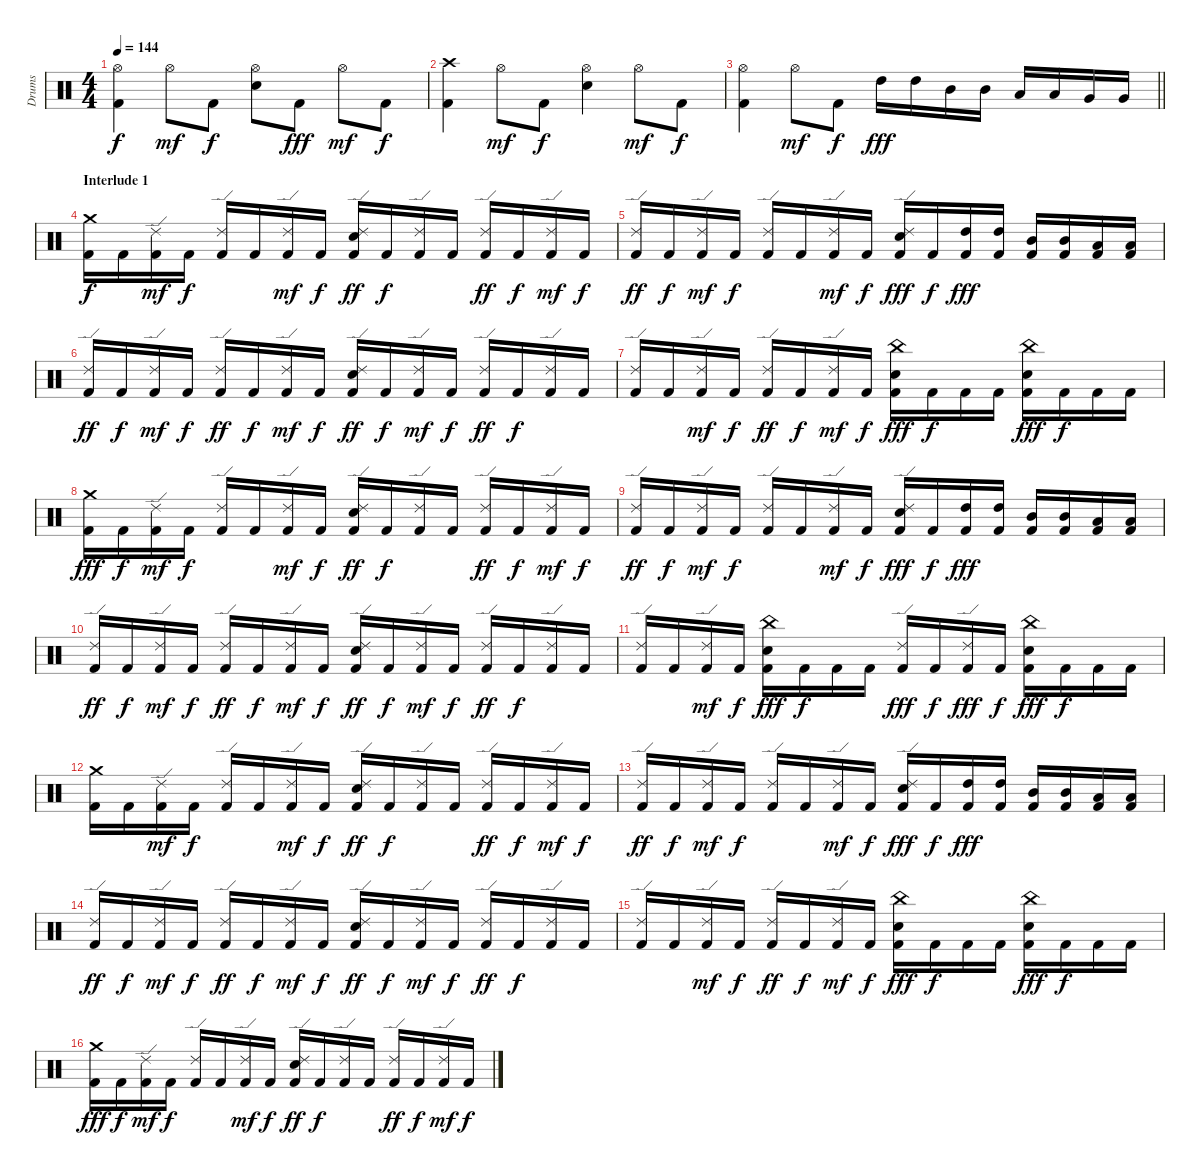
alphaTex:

\track ("Drums" "Drums") {instrument percussion}
\staff {score}
\articulation defaults
\ts (4 4)
\tempo 144
\clef neutral
\ks c
("Hi-Hat (open)" "Kick (hit) 2").4{dy f} "Hi-Hat (open)".8{dy mf} "Kick (hit) 2".8{dy f} ("Hi-Hat (open)" "Electric Snare (hit)").8 "Kick (hit) 2".8{dy fff} "Hi-Hat (open)".8{dy mf} "Kick (hit) 2".8{dy f} |
("Crash high (hit)" "Kick (hit) 2").4 "Hi-Hat (open)".8{dy mf} "Kick (hit) 2".8{dy f} ("Hi-Hat (open)" "Electric Snare (hit)").4 "Hi-Hat (open)".8{dy mf} "Kick (hit) 2".8{dy f} |
\barLineRight lightlight
("Hi-Hat (open)" "Kick (hit) 2").4 "Hi-Hat (open)".8{dy mf} "Kick (hit) 2".8{dy f} "High Tom (hit)".16{dy fff} "High Tom (hit)".16 "Mid Tom (hit)".16 "Mid Tom (hit)".16 "Low Tom (hit)".16 "Low Tom (hit)".16 "Very Low Tom (hit)".16 "Very Low Tom (hit)".16 |
\section ("" "Interlude 1")
("Crash medium (hit)" "Kick (hit) 2").16{dy f} "Kick (hit) 2".16 ("Ride (edge) 2" "Kick (hit) 2").16{dy mf} "Kick (hit) 2".16{dy f} ("Ride (edge) 2" "Kick (hit) 2").16 "Kick (hit) 2".16 ("Ride (edge) 2" "Kick (hit) 2").16{dy mf} "Kick (hit) 2".16{dy f} ("Ride (edge) 2" "Electric Snare (hit)" "Kick (hit) 2").16{dy ff} "Kick (hit) 2".16{dy f} ("Ride (edge) 2" "Kick (hit) 2").16 "Kick (hit) 2".16 ("Ride (edge) 2" "Kick (hit) 2").16{dy ff} "Kick (hit) 2".16{dy f} ("Ride (edge) 2" "Kick (hit) 2").16{dy mf} "Kick (hit) 2".16{dy f} |
("Ride (edge) 2" "Kick (hit) 2").16{dy ff} "Kick (hit) 2".16{dy f} ("Ride (edge) 2" "Kick (hit) 2").16{dy mf} "Kick (hit) 2".16{dy f} ("Ride (edge) 2" "Kick (hit) 2").16 "Kick (hit) 2".16 ("Ride (edge) 2" "Kick (hit) 2").16{dy mf} "Kick (hit) 2".16{dy f} ("Ride (edge) 2" "Electric Snare (hit)" "Kick (hit) 2").16{dy fff} "Kick (hit) 2".16{dy f} ("High Tom (hit)" "Kick (hit) 2").16{dy fff} ("High Tom (hit)" "Kick (hit) 2").16 ("Mid Tom (hit)" "Kick (hit) 2").16 ("Mid Tom (hit)" "Kick (hit) 2").16 ("Low Tom (hit)" "Kick (hit) 2").16 ("Low Tom (hit)" "Kick (hit) 2").16 |
("Ride (edge) 2" "Kick (hit) 2").16{dy ff} "Kick (hit) 2".16{dy f} ("Ride (edge) 2" "Kick (hit) 2").16{dy mf} "Kick (hit) 2".16{dy f} ("Ride (edge) 2" "Kick (hit) 2").16{dy ff} "Kick (hit) 2".16{dy f} ("Ride (edge) 2" "Kick (hit) 2").16{dy mf} "Kick (hit) 2".16{dy f} ("Ride (edge) 2" "Electric Snare (hit)" "Kick (hit) 2").16{dy ff} "Kick (hit) 2".16{dy f} ("Ride (edge) 2" "Kick (hit) 2").16{dy mf} "Kick (hit) 2".16{dy f} ("Ride (edge) 2" "Kick (hit) 2").16{dy ff} "Kick (hit) 2".16{dy f} ("Ride (edge) 2" "Kick (hit) 2").16 "Kick (hit) 2".16 |
("Ride (edge) 2" "Kick (hit) 2").16 "Kick (hit) 2".16 ("Ride (edge) 2" "Kick (hit) 2").16{dy mf} "Kick (hit) 2".16{dy f} ("Ride (edge) 2" "Kick (hit) 2").16{dy ff} "Kick (hit) 2".16{dy f} ("Ride (edge) 2" "Kick (hit) 2").16{dy mf} "Kick (hit) 2".16{dy f} ("China (hit)" "Electric Snare (hit)" "Kick (hit) 2").16{dy fff} "Kick (hit) 2".16{dy f} "Kick (hit) 2".16 "Kick (hit) 2".16 ("China (hit)" "Electric Snare (hit)" "Kick (hit) 2").16{dy fff} "Kick (hit) 2".16{dy f} "Kick (hit) 2".16 "Kick (hit) 2".16 |
("Crash medium (hit)" "Kick (hit) 2").16{dy fff} "Kick (hit) 2".16{dy f} ("Ride (edge) 2" "Kick (hit) 2").16{dy mf} "Kick (hit) 2".16{dy f} ("Ride (edge) 2" "Kick (hit) 2").16 "Kick (hit) 2".16 ("Ride (edge) 2" "Kick (hit) 2").16{dy mf} "Kick (hit) 2".16{dy f} ("Ride (edge) 2" "Electric Snare (hit)" "Kick (hit) 2").16{dy ff} "Kick (hit) 2".16{dy f} ("Ride (edge) 2" "Kick (hit) 2").16 "Kick (hit) 2".16 ("Ride (edge) 2" "Kick (hit) 2").16{dy ff} "Kick (hit) 2".16{dy f} ("Ride (edge) 2" "Kick (hit) 2").16{dy mf} "Kick (hit) 2".16{dy f} |
("Ride (edge) 2" "Kick (hit) 2").16{dy ff} "Kick (hit) 2".16{dy f} ("Ride (edge) 2" "Kick (hit) 2").16{dy mf} "Kick (hit) 2".16{dy f} ("Ride (edge) 2" "Kick (hit) 2").16 "Kick (hit) 2".16 ("Ride (edge) 2" "Kick (hit) 2").16{dy mf} "Kick (hit) 2".16{dy f} ("Ride (edge) 2" "Electric Snare (hit)" "Kick (hit) 2").16{dy fff} "Kick (hit) 2".16{dy f} ("High Tom (hit)" "Kick (hit) 2").16{dy fff} ("High Tom (hit)" "Kick (hit) 2").16 ("Mid Tom (hit)" "Kick (hit) 2").16 ("Mid Tom (hit)" "Kick (hit) 2").16 ("Low Tom (hit)" "Kick (hit) 2").16 ("Low Tom (hit)" "Kick (hit) 2").16 |
("Ride (edge) 2" "Kick (hit) 2").16{dy ff} "Kick (hit) 2".16{dy f} ("Ride (edge) 2" "Kick (hit) 2").16{dy mf} "Kick (hit) 2".16{dy f} ("Ride (edge) 2" "Kick (hit) 2").16{dy ff} "Kick (hit) 2".16{dy f} ("Ride (edge) 2" "Kick (hit) 2").16{dy mf} "Kick (hit) 2".16{dy f} ("Ride (edge) 2" "Electric Snare (hit)" "Kick (hit) 2").16{dy ff} "Kick (hit) 2".16{dy f} ("Ride (edge) 2" "Kick (hit) 2").16{dy mf} "Kick (hit) 2".16{dy f} ("Ride (edge) 2" "Kick (hit) 2").16{dy ff} "Kick (hit) 2".16{dy f} ("Ride (edge) 2" "Kick (hit) 2").16 "Kick (hit) 2".16 |
("Ride (edge) 2" "Kick (hit) 2").16 "Kick (hit) 2".16 ("Ride (edge) 2" "Kick (hit) 2").16{dy mf} "Kick (hit) 2".16{dy f} ("China (hit)" "Electric Snare (hit)" "Kick (hit) 2").16{dy fff} "Kick (hit) 2".16{dy f} "Kick (hit) 2".16 "Kick (hit) 2".16 ("Ride (edge) 2" "Kick (hit) 2").16{dy fff} "Kick (hit) 2".16{dy f} ("Ride (edge) 2" "Kick (hit) 2").16{dy fff} "Kick (hit) 2".16{dy f} ("China (hit)" "Electric Snare (hit)" "Kick (hit) 2").16{dy fff} "Kick (hit) 2".16{dy f} "Kick (hit) 2".16 "Kick (hit) 2".16 |
("Crash medium (hit)" "Kick (hit) 2").16 "Kick (hit) 2".16 ("Ride (edge) 2" "Kick (hit) 2").16{dy mf} "Kick (hit) 2".16{dy f} ("Ride (edge) 2" "Kick (hit) 2").16 "Kick (hit) 2".16 ("Ride (edge) 2" "Kick (hit) 2").16{dy mf} "Kick (hit) 2".16{dy f} ("Ride (edge) 2" "Electric Snare (hit)" "Kick (hit) 2").16{dy ff} "Kick (hit) 2".16{dy f} ("Ride (edge) 2" "Kick (hit) 2").16 "Kick (hit) 2".16 ("Ride (edge) 2" "Kick (hit) 2").16{dy ff} "Kick (hit) 2".16{dy f} ("Ride (edge) 2" "Kick (hit) 2").16{dy mf} "Kick (hit) 2".16{dy f} |
("Ride (edge) 2" "Kick (hit) 2").16{dy ff} "Kick (hit) 2".16{dy f} ("Ride (edge) 2" "Kick (hit) 2").16{dy mf} "Kick (hit) 2".16{dy f} ("Ride (edge) 2" "Kick (hit) 2").16 "Kick (hit) 2".16 ("Ride (edge) 2" "Kick (hit) 2").16{dy mf} "Kick (hit) 2".16{dy f} ("Ride (edge) 2" "Electric Snare (hit)" "Kick (hit) 2").16{dy fff} "Kick (hit) 2".16{dy f} ("High Tom (hit)" "Kick (hit) 2").16{dy fff} ("High Tom (hit)" "Kick (hit) 2").16 ("Mid Tom (hit)" "Kick (hit) 2").16 ("Mid Tom (hit)" "Kick (hit) 2").16 ("Low Tom (hit)" "Kick (hit) 2").16 ("Low Tom (hit)" "Kick (hit) 2").16 |
("Ride (edge) 2" "Kick (hit) 2").16{dy ff} "Kick (hit) 2".16{dy f} ("Ride (edge) 2" "Kick (hit) 2").16{dy mf} "Kick (hit) 2".16{dy f} ("Ride (edge) 2" "Kick (hit) 2").16{dy ff} "Kick (hit) 2".16{dy f} ("Ride (edge) 2" "Kick (hit) 2").16{dy mf} "Kick (hit) 2".16{dy f} ("Ride (edge) 2" "Electric Snare (hit)" "Kick (hit) 2").16{dy ff} "Kick (hit) 2".16{dy f} ("Ride (edge) 2" "Kick (hit) 2").16{dy mf} "Kick (hit) 2".16{dy f} ("Ride (edge) 2" "Kick (hit) 2").16{dy ff} "Kick (hit) 2".16{dy f} ("Ride (edge) 2" "Kick (hit) 2").16 "Kick (hit) 2".16 |
("Ride (edge) 2" "Kick (hit) 2").16 "Kick (hit) 2".16 ("Ride (edge) 2" "Kick (hit) 2").16{dy mf} "Kick (hit) 2".16{dy f} ("Ride (edge) 2" "Kick (hit) 2").16{dy ff} "Kick (hit) 2".16{dy f} ("Ride (edge) 2" "Kick (hit) 2").16{dy mf} "Kick (hit) 2".16{dy f} ("China (hit)" "Electric Snare (hit)" "Kick (hit) 2").16{dy fff} "Kick (hit) 2".16{dy f} "Kick (hit) 2".16 "Kick (hit) 2".16 ("China (hit)" "Electric Snare (hit)" "Kick (hit) 2").16{dy fff} "Kick (hit) 2".16{dy f} "Kick (hit) 2".16 "Kick (hit) 2".16 |
("Crash medium (hit)" "Kick (hit) 2").16{dy fff} "Kick (hit) 2".16{dy f} ("Ride (edge) 2" "Kick (hit) 2").16{dy mf} "Kick (hit) 2".16{dy f} ("Ride (edge) 2" "Kick (hit) 2").16 "Kick (hit) 2".16 ("Ride (edge) 2" "Kick (hit) 2").16{dy mf} "Kick (hit) 2".16{dy f} ("Ride (edge) 2" "Electric Snare (hit)" "Kick (hit) 2").16{dy ff} "Kick (hit) 2".16{dy f} ("Ride (edge) 2" "Kick (hit) 2").16 "Kick (hit) 2".16 ("Ride (edge) 2" "Kick (hit) 2").16{dy ff} "Kick (hit) 2".16{dy f} ("Ride (edge) 2" "Kick (hit) 2").16{dy mf} "Kick (hit) 2".16{dy f}
